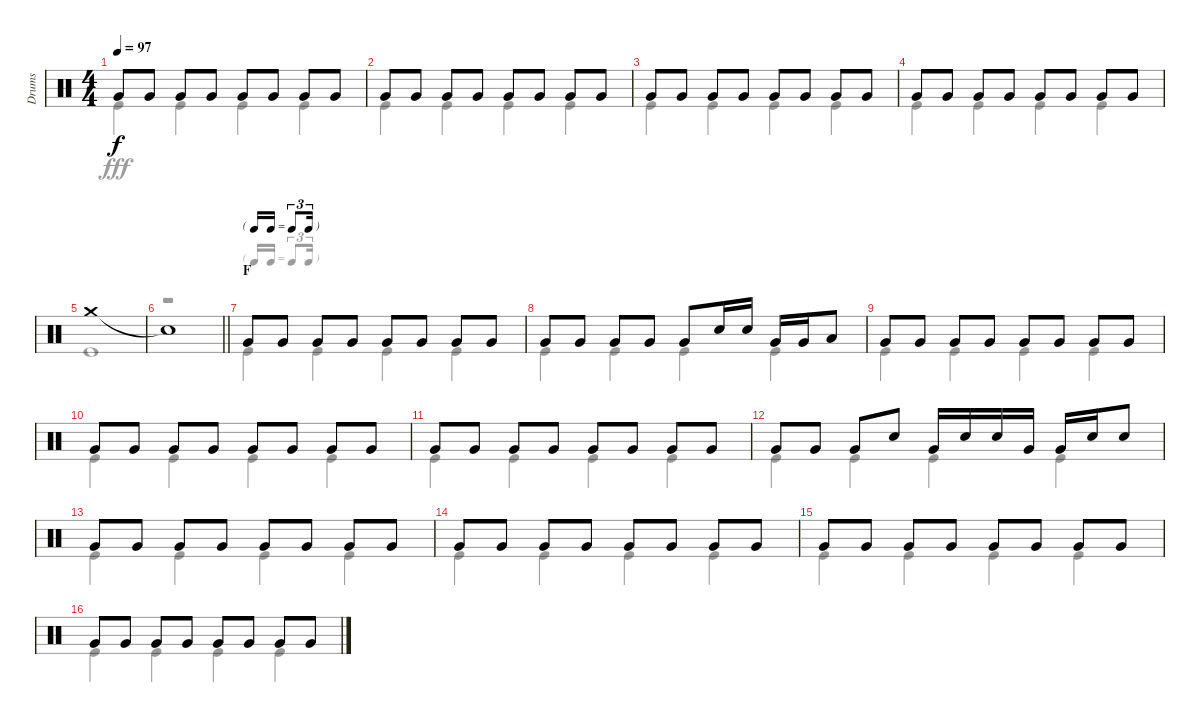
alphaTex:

\track ("Drums" "Drums") {instrument percussion}
\staff {score}
\articulation defaults
\voice
\ts (4 4)
\tempo 97
\clef neutral
\ks c "Very Low Tom (hit)".8{dy f} "Very Low Tom (hit)".8 "Very Low Tom (hit)".8 "Very Low Tom (hit)".8 "Very Low Tom (hit)".8 "Very Low Tom (hit)".8 "Very Low Tom (hit)".8 "Very Low Tom (hit)".8
|
"Very Low Tom (hit)".8 "Very Low Tom (hit)".8 "Very Low Tom (hit)".8 "Very Low Tom (hit)".8 "Very Low Tom (hit)".8 "Very Low Tom (hit)".8 "Very Low Tom (hit)".8 "Very Low Tom (hit)".8 |
"Very Low Tom (hit)".8 "Very Low Tom (hit)".8 "Very Low Tom (hit)".8 "Very Low Tom (hit)".8 "Very Low Tom (hit)".8 "Very Low Tom (hit)".8 "Very Low Tom (hit)".8 "Very Low Tom (hit)".8 |
"Very Low Tom (hit)".8 "Very Low Tom (hit)".8 "Very Low Tom (hit)".8 "Very Low Tom (hit)".8 "Very Low Tom (hit)".8 "Very Low Tom (hit)".8 "Very Low Tom (hit)".8 "Very Low Tom (hit)".8 |
"Crash medium (hit)".1 |
\barLineRight lightlight "Snare (hit)"{t}.1
|
\tf triplet16th
\section ("" "F")
"Very Low Tom (hit)".8 "Very Low Tom (hit)".8 "Very Low Tom (hit)".8 "Very Low Tom (hit)".8 "Very Low Tom (hit)".8 "Very Low Tom (hit)".8 "Very Low Tom (hit)".8 "Very Low Tom (hit)".8 |
"Very Low Tom (hit)".8 "Very Low Tom (hit)".8 "Very Low Tom (hit)".8 "Very Low Tom (hit)".8 "Very Low Tom (hit)".8 "Snare (hit) 2".16 "Snare (hit) 2".16 "Very Low Tom (hit)".16 "Very Low Tom (hit)".16 "Low Tom (hit)".8 |
"Very Low Tom (hit)".8 "Very Low Tom (hit)".8 "Very Low Tom (hit)".8 "Very Low Tom (hit)".8 "Very Low Tom (hit)".8 "Very Low Tom (hit)".8 "Very Low Tom (hit)".8 "Very Low Tom (hit)".8 |
"Very Low Tom (hit)".8 "Very Low Tom (hit)".8 "Very Low Tom (hit)".8 "Very Low Tom (hit)".8 "Very Low Tom (hit)".8 "Very Low Tom (hit)".8 "Very Low Tom (hit)".8 "Very Low Tom (hit)".8 |
"Very Low Tom (hit)".8 "Very Low Tom (hit)".8 "Very Low Tom (hit)".8 "Very Low Tom (hit)".8 "Very Low Tom (hit)".8 "Very Low Tom (hit)".8 "Very Low Tom (hit)".8 "Very Low Tom (hit)".8 |
"Very Low Tom (hit)".8 "Very Low Tom (hit)".8 "Very Low Tom (hit)".8 "Snare (hit) 2".8 "Very Low Tom (hit)".16 "Snare (hit) 2".16 "Snare (hit) 2".16 "Very Low Tom (hit)".16 "Very Low Tom (hit)".16 "Snare (hit) 2".16 "Snare (hit) 2".8 |
"Very Low Tom (hit)".8 "Very Low Tom (hit)".8 "Very Low Tom (hit)".8 "Very Low Tom (hit)".8 "Very Low Tom (hit)".8 "Very Low Tom (hit)".8 "Very Low Tom (hit)".8 "Very Low Tom (hit)".8 |
"Very Low Tom (hit)".8 "Very Low Tom (hit)".8 "Very Low Tom (hit)".8 "Very Low Tom (hit)".8 "Very Low Tom (hit)".8 "Very Low Tom (hit)".8 "Very Low Tom (hit)".8 "Very Low Tom (hit)".8 |
"Very Low Tom (hit)".8 "Very Low Tom (hit)".8 "Very Low Tom (hit)".8 "Very Low Tom (hit)".8 "Very Low Tom (hit)".8 "Very Low Tom (hit)".8 "Very Low Tom (hit)".8 "Very Low Tom (hit)".8 |
"Very Low Tom (hit)".8 "Very Low Tom (hit)".8 "Very Low Tom (hit)".8 "Very Low Tom (hit)".8 "Very Low Tom (hit)".8 "Very Low Tom (hit)".8 "Very Low Tom (hit)".8 "Very Low Tom (hit)".8
\voice
\clef neutral
\ottava regular
\simile none
\ks c "Kick (hit)".4{dy fff} "Kick (hit)".4 "Kick (hit)".4 "Kick (hit)".4
|
"Kick (hit)".4 "Kick (hit)".4 "Kick (hit)".4 "Kick (hit)".4 |
"Kick (hit)".4 "Kick (hit)".4 "Kick (hit)".4 "Kick (hit)".4 |
"Kick (hit)".4 "Kick (hit)".4 "Kick (hit)".4 "Kick (hit)".4 |
"Kick (hit)".1 |
\barLineRight lightlight
r.1 |
"Kick (hit)".4 "Kick (hit)".4 "Kick (hit)".4 "Kick (hit)".4 |
"Kick (hit)".4 "Kick (hit)".4 "Kick (hit)".4 "Kick (hit)".4 |
"Kick (hit)".4 "Kick (hit)".4 "Kick (hit)".4 "Kick (hit)".4 |
"Kick (hit)".4 "Kick (hit)".4 "Kick (hit)".4 "Kick (hit)".4 |
"Kick (hit)".4 "Kick (hit)".4 "Kick (hit)".4 "Kick (hit)".4 |
"Kick (hit)".4 "Kick (hit)".4 "Kick (hit)".4 "Kick (hit)".4 |
"Kick (hit)".4 "Kick (hit)".4 "Kick (hit)".4 "Kick (hit)".4 |
"Kick (hit)".4 "Kick (hit)".4 "Kick (hit)".4 "Kick (hit)".4 |
"Kick (hit)".4 "Kick (hit)".4 "Kick (hit)".4 "Kick (hit)".4 |
"Kick (hit)".4 "Kick (hit)".4 "Kick (hit)".4 "Kick (hit)".4
